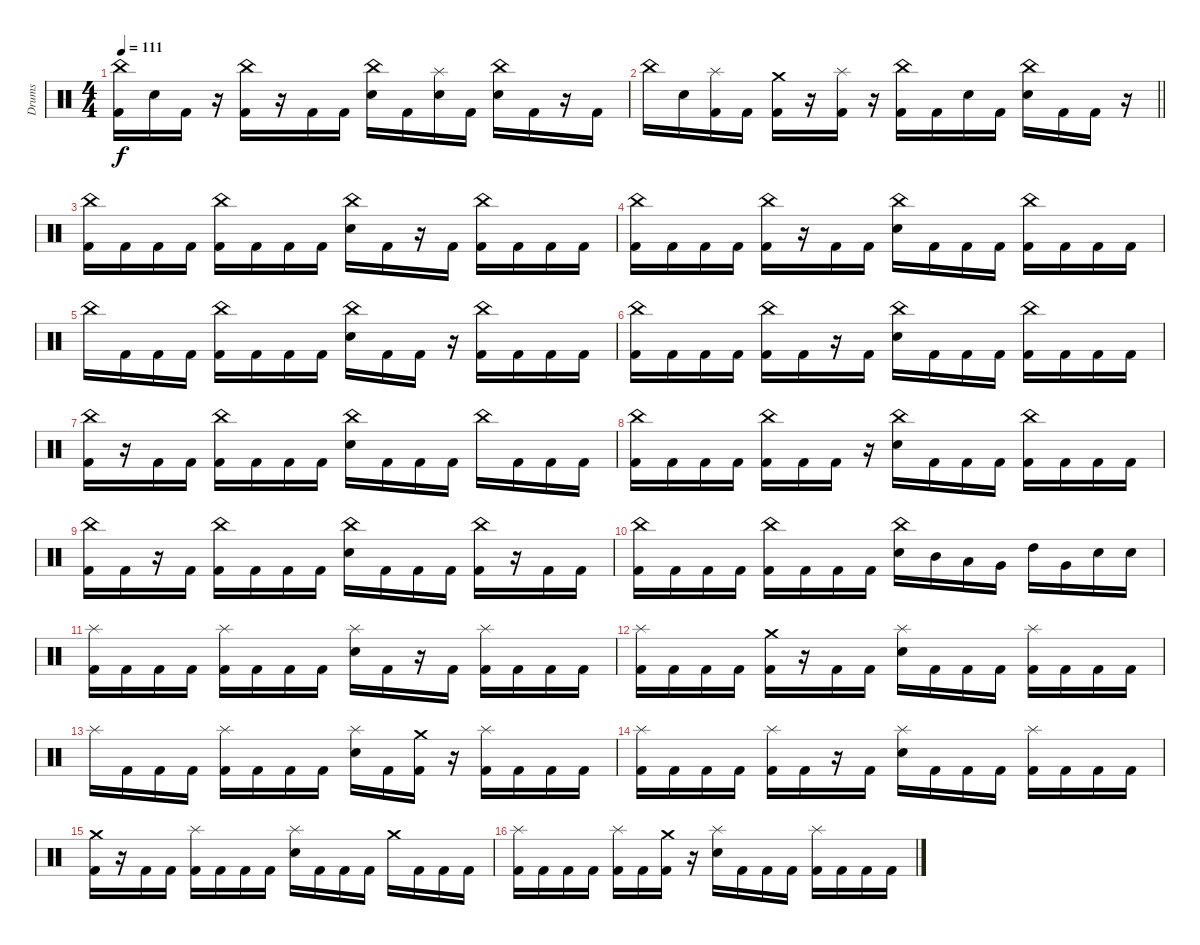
\track ("Drums" "Drums") {instrument percussion}
\staff {score}
\articulation defaults
\ts (4 4)
\tempo 111
\clef neutral
\ks c
("China (hit)" "Kick (hit) 2").16{dy f} "Electric Snare (hit)".16 "Kick (hit) 2".16 r.16 ("China (hit)" "Kick (hit) 2").16 r.16 "Kick (hit) 2".16 "Kick (hit) 2".16 ("China (hit)" "Electric Snare (hit)").16 "Kick (hit) 2".16 ("Splash (hit)" "Electric Snare (hit)").16 "Kick (hit) 2".16 ("China (hit)" "Electric Snare (hit)").16 "Kick (hit) 2".16 r.16 "Kick (hit) 2".16 |
\barLineRight lightlight "China (hit)".16 "Electric Snare (hit)".16
("Splash (hit)" "Kick (hit) 2").16 "Kick (hit) 2".16 ("Crash medium (hit)" "Kick (hit) 2").16 r.16 ("Splash (hit)" "Kick (hit) 2").16 r.16 ("China (hit)" "Kick (hit) 2").16 "Kick (hit) 2".16 "Electric Snare (hit)".16 "Kick (hit) 2".16 ("China (hit)" "Electric Snare (hit)").16 "Kick (hit) 2".16 "Kick (hit) 2".16 r.16 |
\section ("" "")
("China (hit)" "Kick (hit) 2").16 "Kick (hit) 2".16 "Kick (hit) 2".16 "Kick (hit) 2".16 ("China (hit)" "Kick (hit) 2").16 "Kick (hit) 2".16 "Kick (hit) 2".16 "Kick (hit) 2".16 ("China (hit)" "Electric Snare (hit)").16 "Kick (hit) 2".16 r.16 "Kick (hit) 2".16 ("China (hit)" "Kick (hit) 2").16 "Kick (hit) 2".16 "Kick (hit) 2".16 "Kick (hit) 2".16 |
("China (hit)" "Kick (hit) 2").16 "Kick (hit) 2".16 "Kick (hit) 2".16 "Kick (hit) 2".16 ("China (hit)" "Kick (hit) 2").16 r.16 "Kick (hit) 2".16 "Kick (hit) 2".16 ("China (hit)" "Electric Snare (hit)").16 "Kick (hit) 2".16 "Kick (hit) 2".16 "Kick (hit) 2".16 ("China (hit)" "Kick (hit) 2").16 "Kick (hit) 2".16 "Kick (hit) 2".16 "Kick (hit) 2".16 |
"China (hit)".16 "Kick (hit) 2".16 "Kick (hit) 2".16 "Kick (hit) 2".16 ("China (hit)" "Kick (hit) 2").16 "Kick (hit) 2".16 "Kick (hit) 2".16 "Kick (hit) 2".16 ("China (hit)" "Electric Snare (hit)").16 "Kick (hit) 2".16 "Kick (hit) 2".16 r.16 ("China (hit)" "Kick (hit) 2").16 "Kick (hit) 2".16 "Kick (hit) 2".16 "Kick (hit) 2".16 |
("China (hit)" "Kick (hit) 2").16 "Kick (hit) 2".16 "Kick (hit) 2".16 "Kick (hit) 2".16 ("China (hit)" "Kick (hit) 2").16 "Kick (hit) 2".16 r.16 "Kick (hit) 2".16 ("China (hit)" "Electric Snare (hit)").16 "Kick (hit) 2".16 "Kick (hit) 2".16 "Kick (hit) 2".16 ("China (hit)" "Kick (hit) 2").16 "Kick (hit) 2".16 "Kick (hit) 2".16 "Kick (hit) 2".16 |
("China (hit)" "Kick (hit) 2").16 r.16 "Kick (hit) 2".16 "Kick (hit) 2".16 ("China (hit)" "Kick (hit) 2").16 "Kick (hit) 2".16 "Kick (hit) 2".16 "Kick (hit) 2".16 ("China (hit)" "Electric Snare (hit)").16 "Kick (hit) 2".16 "Kick (hit) 2".16 "Kick (hit) 2".16 "China (hit)".16 "Kick (hit) 2".16 "Kick (hit) 2".16 "Kick (hit) 2".16 |
("China (hit)" "Kick (hit) 2").16 "Kick (hit) 2".16 "Kick (hit) 2".16 "Kick (hit) 2".16 ("China (hit)" "Kick (hit) 2").16 "Kick (hit) 2".16 "Kick (hit) 2".16 r.16 ("China (hit)" "Electric Snare (hit)").16 "Kick (hit) 2".16 "Kick (hit) 2".16 "Kick (hit) 2".16 ("China (hit)" "Kick (hit) 2").16 "Kick (hit) 2".16 "Kick (hit) 2".16 "Kick (hit) 2".16 |
("China (hit)" "Kick (hit) 2").16 "Kick (hit) 2".16 r.16 "Kick (hit) 2".16 ("China (hit)" "Kick (hit) 2").16 "Kick (hit) 2".16 "Kick (hit) 2".16 "Kick (hit) 2".16 ("China (hit)" "Electric Snare (hit)").16 "Kick (hit) 2".16 "Kick (hit) 2".16 "Kick (hit) 2".16 ("China (hit)" "Kick (hit) 2").16 r.16 "Kick (hit) 2".16 "Kick (hit) 2".16 |
("China (hit)" "Kick (hit) 2").16 "Kick (hit) 2".16 "Kick (hit) 2".16 "Kick (hit) 2".16 ("China (hit)" "Kick (hit) 2").16 "Kick (hit) 2".16 "Kick (hit) 2".16 "Kick (hit) 2".16 ("China (hit)" "Electric Snare (hit)").16 "Mid Tom (hit)".16 "Low Tom (hit)".16 "Very Low Tom (hit)".16 "High Tom (hit)".16 "Very Low Tom (hit)".16 "Electric Snare (hit)".16 "Electric Snare (hit)".16 |
("Splash (hit)" "Kick (hit) 2").16 "Kick (hit) 2".16 "Kick (hit) 2".16 "Kick (hit) 2".16 ("Splash (hit)" "Kick (hit) 2").16 "Kick (hit) 2".16 "Kick (hit) 2".16 "Kick (hit) 2".16 ("Splash (hit)" "Electric Snare (hit)").16 "Kick (hit) 2".16 r.16 "Kick (hit) 2".16 ("Splash (hit)" "Kick (hit) 2").16 "Kick (hit) 2".16 "Kick (hit) 2".16 "Kick (hit) 2".16 |
("Splash (hit)" "Kick (hit) 2").16 "Kick (hit) 2".16 "Kick (hit) 2".16 "Kick (hit) 2".16 ("Crash medium (hit)" "Kick (hit) 2").16 r.16 "Kick (hit) 2".16 "Kick (hit) 2".16 ("Splash (hit)" "Electric Snare (hit)").16 "Kick (hit) 2".16 "Kick (hit) 2".16 "Kick (hit) 2".16 ("Splash (hit)" "Kick (hit) 2").16 "Kick (hit) 2".16 "Kick (hit) 2".16 "Kick (hit) 2".16 |
"Splash (hit)".16 "Kick (hit) 2".16 "Kick (hit) 2".16 "Kick (hit) 2".16 ("Splash (hit)" "Kick (hit) 2").16 "Kick (hit) 2".16 "Kick (hit) 2".16 "Kick (hit) 2".16 ("Splash (hit)" "Electric Snare (hit)").16 "Kick (hit) 2".16 ("Crash medium (hit)" "Kick (hit) 2").16 r.16 ("Splash (hit)" "Kick (hit) 2").16 "Kick (hit) 2".16 "Kick (hit) 2".16 "Kick (hit) 2".16 |
("Splash (hit)" "Kick (hit) 2").16 "Kick (hit) 2".16 "Kick (hit) 2".16 "Kick (hit) 2".16 ("Splash (hit)" "Kick (hit) 2").16 "Kick (hit) 2".16 r.16 "Kick (hit) 2".16 ("Splash (hit)" "Electric Snare (hit)").16 "Kick (hit) 2".16 "Kick (hit) 2".16 "Kick (hit) 2".16 ("Splash (hit)" "Kick (hit) 2").16 "Kick (hit) 2".16 "Kick (hit) 2".16 "Kick (hit) 2".16 |
("Crash medium (hit)" "Kick (hit) 2").16 r.16 "Kick (hit) 2".16 "Kick (hit) 2".16 ("Splash (hit)" "Kick (hit) 2").16 "Kick (hit) 2".16 "Kick (hit) 2".16 "Kick (hit) 2".16 ("Splash (hit)" "Electric Snare (hit)").16 "Kick (hit) 2".16 "Kick (hit) 2".16 "Kick (hit) 2".16 "Crash medium (hit)".16 "Kick (hit) 2".16 "Kick (hit) 2".16 "Kick (hit) 2".16 |
("Splash (hit)" "Kick (hit) 2").16 "Kick (hit) 2".16 "Kick (hit) 2".16 "Kick (hit) 2".16 ("Splash (hit)" "Kick (hit) 2").16 "Kick (hit) 2".16 ("Crash medium (hit)" "Kick (hit) 2").16 r.16 ("Splash (hit)" "Electric Snare (hit)").16 "Kick (hit) 2".16 "Kick (hit) 2".16 "Kick (hit) 2".16 ("Splash (hit)" "Kick (hit) 2").16 "Kick (hit) 2".16 "Kick (hit) 2".16 "Kick (hit) 2".16
